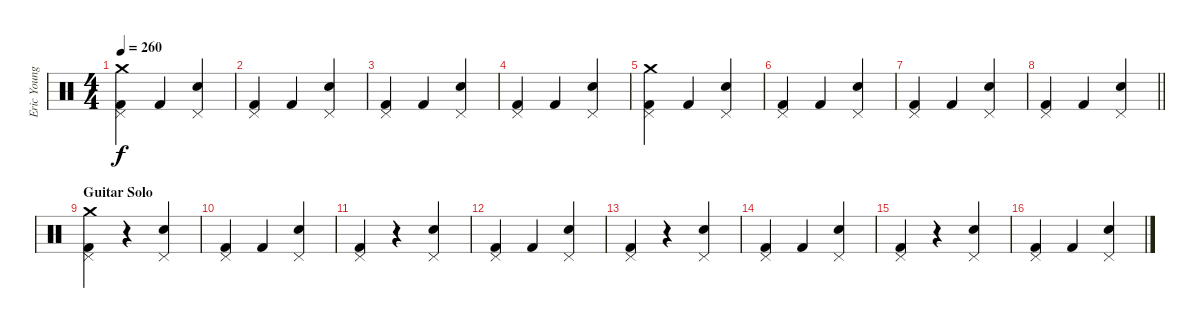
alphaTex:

\track ("Eric Young (Drums)" "Eric Young") {instrument percussion}
\staff {score}
\articulation defaults
\ts (4 4)
\tempo 260
\clef neutral
\ks c
("Pedal Hi-Hat (hit)" "Kick (hit) 2" "Crash medium (hit)").4{dy f} "Kick (hit) 2".4 ("Pedal Hi-Hat (hit)" "Snare (hit) 2").4 |
("Pedal Hi-Hat (hit)" "Kick (hit) 2").4 "Kick (hit) 2".4 ("Pedal Hi-Hat (hit)" "Snare (hit) 2").4 |
("Pedal Hi-Hat (hit)" "Kick (hit) 2").4 "Kick (hit) 2".4 ("Pedal Hi-Hat (hit)" "Snare (hit) 2").4 |
("Pedal Hi-Hat (hit)" "Kick (hit) 2").4 "Kick (hit) 2".4 ("Pedal Hi-Hat (hit)" "Snare (hit) 2").4 |
("Pedal Hi-Hat (hit)" "Kick (hit) 2" "Crash medium (hit)").4 "Kick (hit) 2".4 ("Pedal Hi-Hat (hit)" "Snare (hit) 2").4 |
("Pedal Hi-Hat (hit)" "Kick (hit) 2").4 "Kick (hit) 2".4 ("Pedal Hi-Hat (hit)" "Snare (hit) 2").4 |
("Pedal Hi-Hat (hit)" "Kick (hit) 2").4 "Kick (hit) 2".4 ("Pedal Hi-Hat (hit)" "Snare (hit) 2").4 |
\barLineRight lightlight
("Pedal Hi-Hat (hit)" "Kick (hit) 2").4 "Kick (hit) 2".4 ("Pedal Hi-Hat (hit)" "Snare (hit) 2").4 |
\section ("" "Guitar Solo")
("Pedal Hi-Hat (hit)" "Kick (hit) 2" "Crash medium (hit)").4 r.4 ("Pedal Hi-Hat (hit)" "Snare (hit) 2").4 |
("Pedal Hi-Hat (hit)" "Kick (hit) 2").4 "Kick (hit) 2".4 ("Pedal Hi-Hat (hit)" "Snare (hit) 2").4 |
("Pedal Hi-Hat (hit)" "Kick (hit) 2").4 r.4 ("Pedal Hi-Hat (hit)" "Snare (hit) 2").4 |
("Pedal Hi-Hat (hit)" "Kick (hit) 2").4 "Kick (hit) 2".4 ("Pedal Hi-Hat (hit)" "Snare (hit) 2").4 |
("Pedal Hi-Hat (hit)" "Kick (hit) 2").4 r.4 ("Pedal Hi-Hat (hit)" "Snare (hit) 2").4 |
("Pedal Hi-Hat (hit)" "Kick (hit) 2").4 "Kick (hit) 2".4 ("Pedal Hi-Hat (hit)" "Snare (hit) 2").4 |
("Pedal Hi-Hat (hit)" "Kick (hit) 2").4 r.4 ("Pedal Hi-Hat (hit)" "Snare (hit) 2").4 |
("Pedal Hi-Hat (hit)" "Kick (hit) 2").4 "Kick (hit) 2".4 ("Pedal Hi-Hat (hit)" "Snare (hit) 2").4
